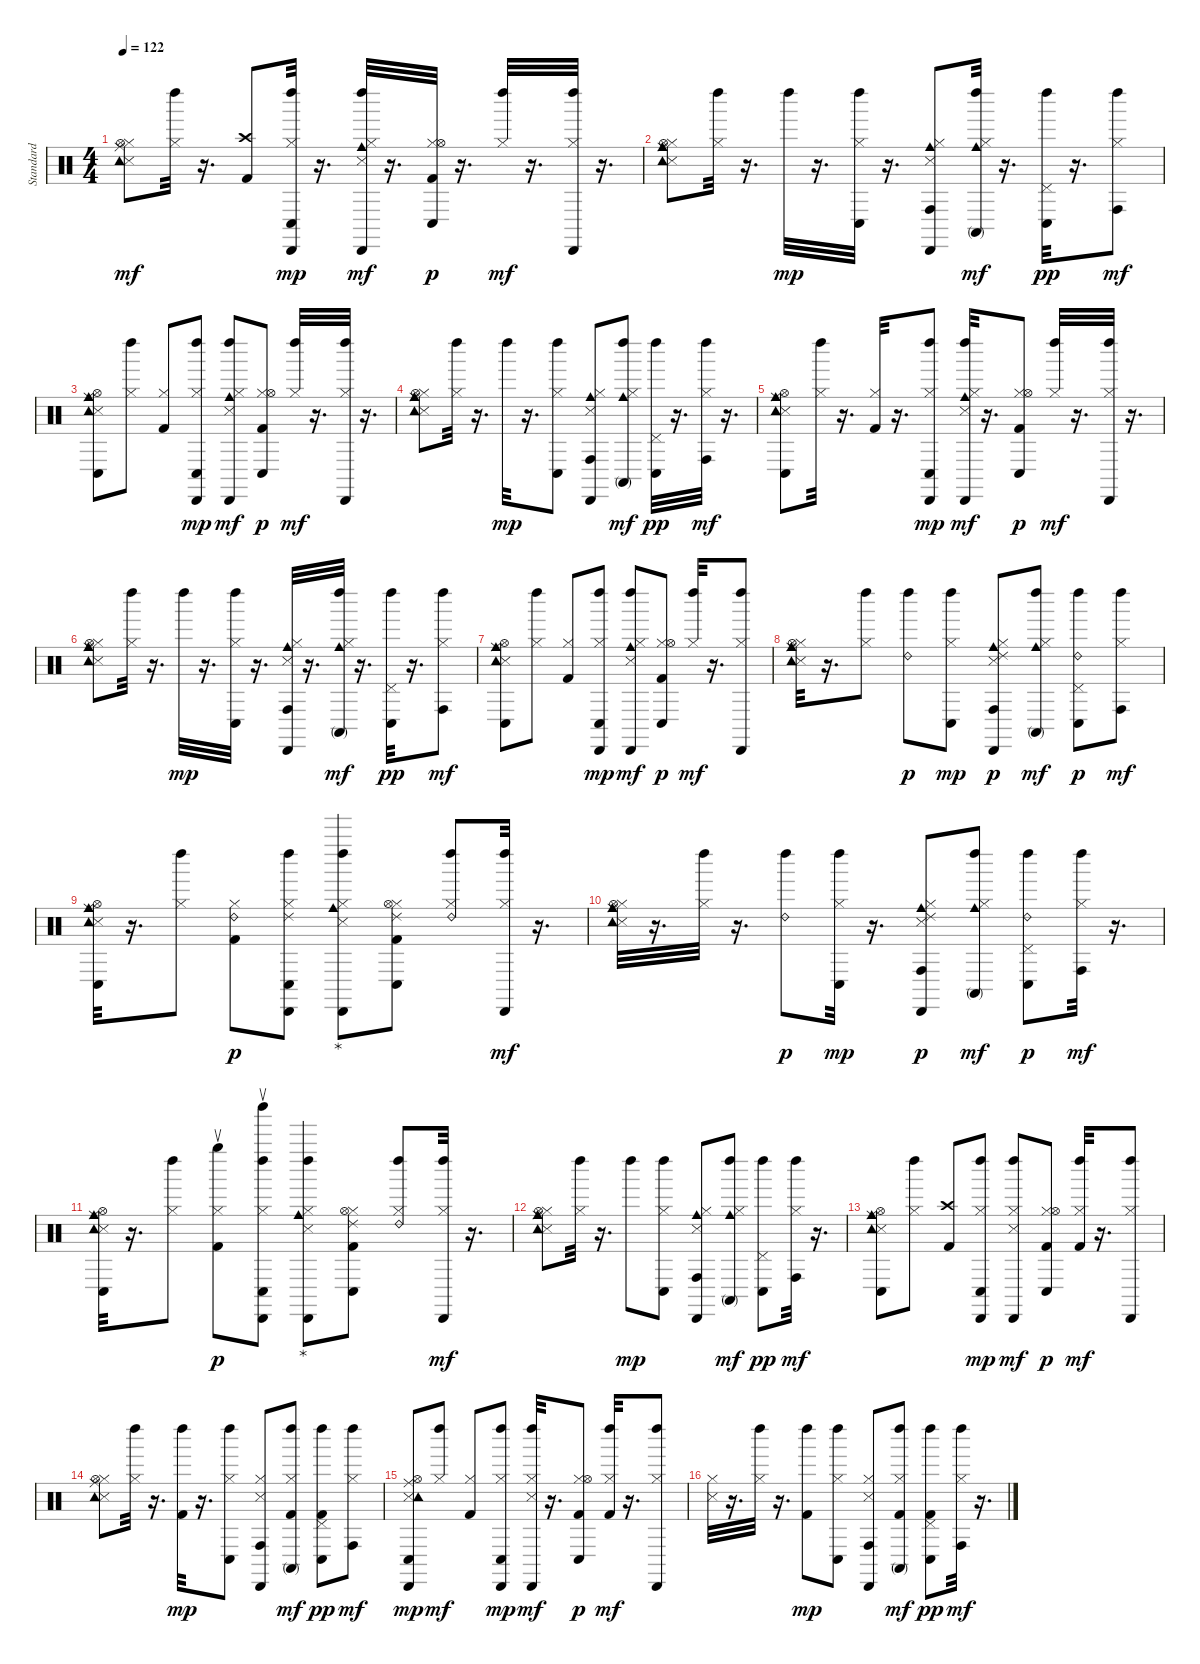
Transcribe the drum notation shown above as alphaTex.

\track (" Standard" " Standard") {instrument percussion}
\staff {score}
\articulation defaults
\ts (4 4)
\tempo 122
\clef neutral
\ks c
("Snare (side stick) 3" "Hi-Hat (closed)" "Hi-Hat (open)" "Ride (middle)" "Tambourine (hit)").8{dy mf} ("Hi-Hat (closed)" "Left Maraca (hit)").32 r.16{d} ("Kick (hit) 2" "Crash high (hit)").8 ("Hi-Hat (closed)" "Conga low (hit)" "Cabasa (hit)" "Left Maraca (hit)").32{dy mp} r.16{d} ("Snare (side stick) 3" "Hi-Hat (closed)" "Cowbell medium (hit)" "Cabasa (hit)" "Left Maraca (hit)").32{dy mf} r.16{d} ("Kick (hit) 2" "Hi-Hat (closed)" "Hi-Hat (open)" "Conga low (hit)").32{dy p} r.16{d} ("Hi-Hat (closed)" "Left Maraca (hit)").32{dy mf} r.16{d} ("Hi-Hat (closed)" "Cabasa (hit)" "Left Maraca (hit)").32 r.16{d} |
("Snare (side stick) 3" "Hi-Hat (closed)" "Hi-Hat (open)" "Ride (middle)" "Tambourine (hit)" "Cowbell medium (hit)").8 ("Hi-Hat (closed)" "Left Maraca (hit)").32 r.16{d} "Left Maraca (hit)".32{dy mp} r.16{d} ("Hi-Hat (closed)" "Conga low (hit)" "Left Maraca (hit)").32 r.16{d} ("Snare (side stick) 3" "Hi-Hat (closed)" "Cowbell medium (hit)" "Conga high (hit)" "Cabasa (hit)").8 ("Hi-Hat (closed)" "Cowbell medium (hit)" "Conga high (mute)" "Left Maraca (hit)").32{dy mf} r.16{d} ("Pedal Hi-Hat (hit)" "Conga low (hit)" "Left Maraca (hit)").32{dy pp} r.16{d} ("Hi-Hat (closed)" "Conga high (hit)" "Left Maraca (hit)").8{dy mf} |
("Snare (side stick) 3" "Hi-Hat (open)" "Ride (middle)" "Tambourine (hit)" "Cowbell medium (hit)" "Conga low (hit)").8 ("Hi-Hat (closed)" "Left Maraca (hit)").8 ("Kick (hit) 2" "Hi-Hat (closed)").8 ("Hi-Hat (closed)" "Conga low (hit)" "Cabasa (hit)" "Left Maraca (hit)").8{dy mp} ("Snare (side stick) 3" "Hi-Hat (closed)" "Cowbell medium (hit)" "Cabasa (hit)" "Left Maraca (hit)").8{dy mf} ("Kick (hit) 2" "Hi-Hat (closed)" "Hi-Hat (open)" "Conga low (hit)").8{dy p} ("Hi-Hat (closed)" "Left Maraca (hit)").32{dy mf} r.16{d} ("Hi-Hat (closed)" "Cabasa (hit)" "Left Maraca (hit)").32 r.16{d} |
("Snare (side stick) 3" "Hi-Hat (closed)" "Hi-Hat (open)" "Ride (middle)" "Tambourine (hit)" "Cowbell medium (hit)").8 ("Hi-Hat (closed)" "Left Maraca (hit)").32 r.16{d} "Left Maraca (hit)".32{dy mp} r.16{d} ("Hi-Hat (closed)" "Conga low (hit)" "Left Maraca (hit)").8 ("Snare (side stick) 3" "Hi-Hat (closed)" "Cowbell medium (hit)" "Conga high (hit)" "Cabasa (hit)").8 ("Hi-Hat (closed)" "Cowbell medium (hit)" "Conga high (mute)" "Left Maraca (hit)").8{dy mf} ("Pedal Hi-Hat (hit)" "Conga low (hit)" "Left Maraca (hit)").32{dy pp} r.16{d} ("Hi-Hat (closed)" "Conga high (hit)" "Left Maraca (hit)").32{dy mf} r.16{d} |
("Snare (side stick) 3" "Hi-Hat (open)" "Ride (middle)" "Tambourine (hit)" "Cowbell medium (hit)" "Conga low (hit)").8 ("Hi-Hat (closed)" "Left Maraca (hit)").32 r.16{d} ("Kick (hit) 2" "Hi-Hat (closed)").32 r.16{d} ("Hi-Hat (closed)" "Conga low (hit)" "Cabasa (hit)" "Left Maraca (hit)").8{dy mp} ("Snare (side stick) 3" "Hi-Hat (closed)" "Cowbell medium (hit)" "Cabasa (hit)" "Left Maraca (hit)").32{dy mf} r.16{d} ("Kick (hit) 2" "Hi-Hat (closed)" "Hi-Hat (open)" "Conga low (hit)").8{dy p} ("Hi-Hat (closed)" "Left Maraca (hit)").32{dy mf} r.16{d} ("Hi-Hat (closed)" "Cabasa (hit)" "Left Maraca (hit)").32 r.16{d} |
("Snare (side stick) 3" "Hi-Hat (closed)" "Hi-Hat (open)" "Ride (middle)" "Tambourine (hit)" "Cowbell medium (hit)").8 ("Hi-Hat (closed)" "Left Maraca (hit)").32 r.16{d} "Left Maraca (hit)".32{dy mp} r.16{d} ("Hi-Hat (closed)" "Conga low (hit)" "Left Maraca (hit)").32 r.16{d} ("Snare (side stick) 3" "Hi-Hat (closed)" "Cowbell medium (hit)" "Conga high (hit)" "Cabasa (hit)").32 r.16{d} ("Hi-Hat (closed)" "Cowbell medium (hit)" "Conga high (mute)" "Left Maraca (hit)").32{dy mf} r.16{d} ("Pedal Hi-Hat (hit)" "Conga low (hit)" "Left Maraca (hit)").32{dy pp} r.16{d} ("Hi-Hat (closed)" "Conga high (hit)" "Left Maraca (hit)").8{dy mf} |
("Snare (side stick) 3" "Hi-Hat (open)" "Ride (middle)" "Tambourine (hit)" "Cowbell medium (hit)" "Conga low (hit)").8 ("Hi-Hat (closed)" "Left Maraca (hit)").8 ("Kick (hit) 2" "Hi-Hat (closed)").8 ("Hi-Hat (closed)" "Conga low (hit)" "Cabasa (hit)" "Left Maraca (hit)").8{dy mp} ("Snare (side stick) 3" "Hi-Hat (closed)" "Cowbell medium (hit)" "Cabasa (hit)" "Left Maraca (hit)").8{dy mf} ("Kick (hit) 2" "Hi-Hat (closed)" "Hi-Hat (open)" "Conga low (hit)").8{dy p} ("Hi-Hat (closed)" "Left Maraca (hit)").32{dy mf} r.16{d} ("Hi-Hat (closed)" "Cabasa (hit)" "Left Maraca (hit)").8 |
("Snare (side stick) 3" "Hi-Hat (closed)" "Hi-Hat (open)" "Ride (middle)" "Tambourine (hit)" "Cowbell medium (hit)").32 r.16{d} ("Hi-Hat (closed)" "Left Maraca (hit)").8 ("Left Maraca (hit)" "Ride (bell) 2").8{dy p} ("Hi-Hat (closed)" "Conga low (hit)" "Left Maraca (hit)").8{dy mp} ("Snare (side stick) 3" "Hi-Hat (closed)" "Cowbell medium (hit)" "Conga high (hit)" "Cabasa (hit)" "Ride (middle) 2").8{dy p} ("Hi-Hat (closed)" "Cowbell medium (hit)" "Conga high (mute)" "Left Maraca (hit)").8{dy mf} ("Pedal Hi-Hat (hit)" "Conga low (hit)" "Left Maraca (hit)" "Ride (bell) 2").8{dy p} ("Hi-Hat (closed)" "Conga high (hit)" "Left Maraca (hit)").8{dy mf} |
("Snare (side stick) 3" "Hi-Hat (open)" "Ride (middle)" "Tambourine (hit)" "Cowbell medium (hit)" "Conga low (hit)").32 r.16{d} ("Hi-Hat (closed)" "Left Maraca (hit)").8 ("Kick (hit) 2" "Hi-Hat (closed)" "Ride (bell) 2").8{dy p} ("Hi-Hat (closed)" "Conga low (hit)" "Cabasa (hit)" "Left Maraca (hit)" "Ride (middle) 2").8 ("Snare (side stick) 3" "Hi-Hat (closed)" "Cowbell medium (hit)" "Cabasa (hit)" "Left Maraca (hit)" "Golpe (thumb)").8 ("Kick (hit) 2" "Hi-Hat (closed)" "Hi-Hat (open)" "Conga low (hit)" "Ride (middle) 2").8 ("Hi-Hat (closed)" "Left Maraca (hit)" "Ride (bell) 2").8 ("Hi-Hat (closed)" "Cabasa (hit)" "Left Maraca (hit)").32{dy mf} r.16{d} |
("Snare (side stick) 3" "Hi-Hat (closed)" "Hi-Hat (open)" "Ride (middle)" "Tambourine (hit)" "Cowbell medium (hit)").32 r.16{d} ("Hi-Hat (closed)" "Left Maraca (hit)").32 r.16{d} ("Left Maraca (hit)" "Ride (bell) 2").8{dy p} ("Hi-Hat (closed)" "Conga low (hit)" "Left Maraca (hit)").32{dy mp} r.16{d} ("Snare (side stick) 3" "Hi-Hat (closed)" "Cowbell medium (hit)" "Conga high (hit)" "Cabasa (hit)" "Ride (middle) 2").8{dy p} ("Hi-Hat (closed)" "Cowbell medium (hit)" "Conga high (mute)" "Left Maraca (hit)").8{dy mf} ("Pedal Hi-Hat (hit)" "Conga low (hit)" "Left Maraca (hit)" "Ride (bell) 2").8{dy p} ("Hi-Hat (closed)" "Conga high (hit)" "Left Maraca (hit)").32{dy mf} r.16{d} |
("Snare (side stick) 3" "Hi-Hat (open)" "Ride (middle)" "Tambourine (hit)" "Cowbell medium (hit)" "Conga low (hit)").32 r.16{d} ("Hi-Hat (closed)" "Left Maraca (hit)").8 ("Kick (hit) 2" "Hi-Hat (closed)" "Right Maraca (return)").8{dy p} ("Hi-Hat (closed)" "Conga low (hit)" "Cabasa (hit)" "Left Maraca (hit)" "Shaker (return)").8 ("Snare (side stick) 3" "Hi-Hat (closed)" "Cowbell medium (hit)" "Cabasa (hit)" "Left Maraca (hit)" "Golpe (thumb)").8 ("Kick (hit) 2" "Hi-Hat (closed)" "Hi-Hat (open)" "Conga low (hit)" "Ride (middle) 2").8 ("Hi-Hat (closed)" "Left Maraca (hit)" "Ride (bell) 2").8 ("Hi-Hat (closed)" "Cabasa (hit)" "Left Maraca (hit)").32{dy mf} r.16{d} |
("Snare (side stick) 3" "Hi-Hat (closed)" "Hi-Hat (open)" "Ride (middle)" "Tambourine (hit)" "Cowbell medium (hit)").8 ("Hi-Hat (closed)" "Left Maraca (hit)").32 r.16{d} "Left Maraca (hit)".8{dy mp} ("Hi-Hat (closed)" "Conga low (hit)" "Left Maraca (hit)").8 ("Snare (side stick) 3" "Hi-Hat (closed)" "Cowbell medium (hit)" "Conga high (hit)" "Cabasa (hit)").8 ("Hi-Hat (closed)" "Cowbell medium (hit)" "Conga high (mute)" "Left Maraca (hit)").8{dy mf} ("Pedal Hi-Hat (hit)" "Conga low (hit)" "Left Maraca (hit)").8{dy pp} ("Hi-Hat (closed)" "Conga high (hit)" "Left Maraca (hit)").32{dy mf} r.16{d} |
("Snare (side stick) 3" "Hi-Hat (open)" "Ride (middle)" "Tambourine (hit)" "Cowbell medium (hit)" "Conga low (hit)").8 ("Hi-Hat (closed)" "Left Maraca (hit)").8 ("Kick (hit) 2" "Crash high (hit)").8 ("Hi-Hat (closed)" "Conga low (hit)" "Cabasa (hit)" "Left Maraca (hit)").8{dy mp} ("Snare (side stick) 3" "Hi-Hat (closed)" "Cabasa (hit)" "Left Maraca (hit)").8{dy mf} ("Kick (hit) 2" "Hi-Hat (closed)" "Hi-Hat (open)" "Conga low (hit)").8{dy p} ("Kick (hit) 2" "Hi-Hat (closed)" "Left Maraca (hit)").32{dy mf} r.16{d} ("Hi-Hat (closed)" "Cabasa (hit)" "Left Maraca (hit)").8 |
("Snare (side stick) 3" "Hi-Hat (closed)" "Hi-Hat (open)" "Ride (middle)" "Tambourine (hit)").8 ("Hi-Hat (closed)" "Left Maraca (hit)").32 r.16{d} ("Kick (hit) 2" "Left Maraca (hit)").32{dy mp} r.16{d} ("Hi-Hat (closed)" "Conga low (hit)" "Left Maraca (hit)").8 ("Snare (side stick) 3" "Hi-Hat (closed)" "Conga high (hit)" "Cabasa (hit)").8 ("Kick (hit) 2" "Hi-Hat (closed)" "Conga high (mute)" "Left Maraca (hit)").8{dy mf} ("Kick (hit) 2" "Pedal Hi-Hat (hit)" "Conga low (hit)" "Left Maraca (hit)").8{dy pp} ("Hi-Hat (closed)" "Conga high (hit)" "Left Maraca (hit)").8{dy mf} |
("Snare (side stick) 3" "Hi-Hat (open)" "Ride (middle)" "Tambourine (hit)" "Conga low (hit)" "Cabasa (hit)").8{dy mp} ("Hi-Hat (closed)" "Left Maraca (hit)").8{dy mf} ("Kick (hit) 2" "Hi-Hat (closed)").8 ("Hi-Hat (closed)" "Conga low (hit)" "Cabasa (hit)" "Left Maraca (hit)").8{dy mp} ("Snare (side stick) 3" "Hi-Hat (closed)" "Cabasa (hit)" "Left Maraca (hit)").32{dy mf} r.16{d} ("Kick (hit) 2" "Hi-Hat (closed)" "Hi-Hat (open)" "Conga low (hit)").8{dy p} ("Kick (hit) 2" "Hi-Hat (closed)" "Left Maraca (hit)").32{dy mf} r.16{d} ("Hi-Hat (closed)" "Cabasa (hit)" "Left Maraca (hit)").8 |
("Snare (side stick) 3" "Hi-Hat (closed)").32 r.16{d} ("Hi-Hat (closed)" "Left Maraca (hit)").32 r.16{d} ("Kick (hit) 2" "Left Maraca (hit)").8{dy mp} ("Hi-Hat (closed)" "Conga low (hit)" "Left Maraca (hit)").8 ("Snare (side stick) 3" "Hi-Hat (closed)" "Conga high (hit)" "Cabasa (hit)").8 ("Kick (hit) 2" "Hi-Hat (closed)" "Conga high (mute)" "Left Maraca (hit)").8{dy mf} ("Kick (hit) 2" "Pedal Hi-Hat (hit)" "Conga low (hit)" "Left Maraca (hit)").8{dy pp} ("Hi-Hat (closed)" "Conga high (hit)" "Left Maraca (hit)").32{dy mf} r.16{d}
